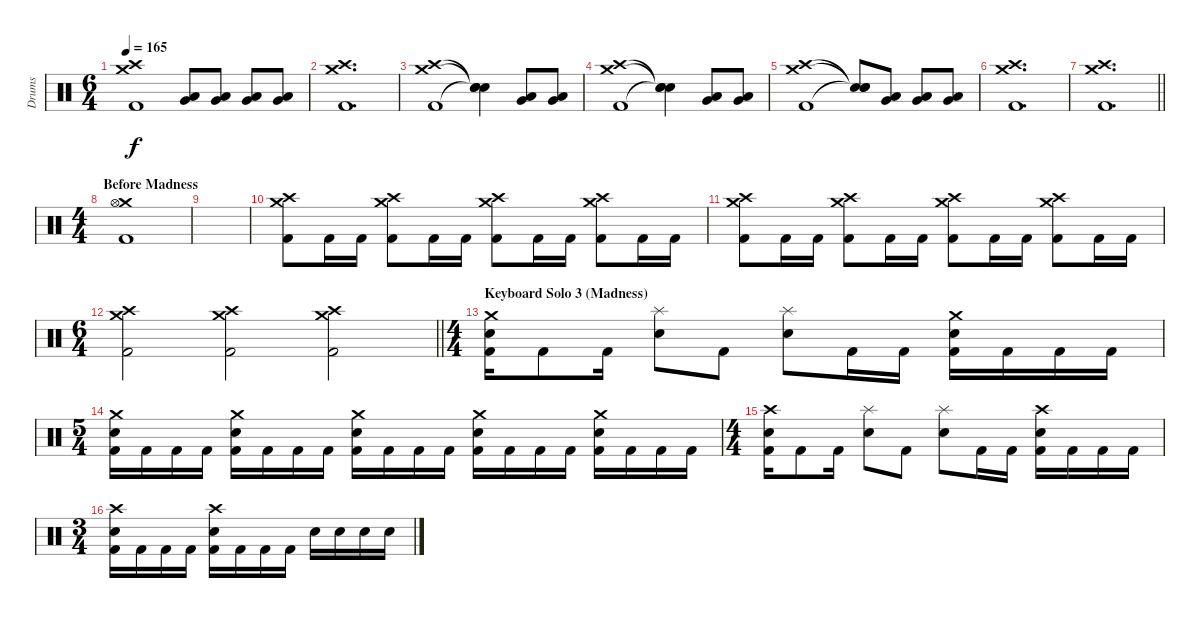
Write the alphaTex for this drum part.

\track ("Drums" "Drums") {instrument percussion}
\staff {score}
\articulation defaults
\ts (6 4)
\tempo 165
\clef neutral
\ks c
("Crash medium (hit)" "Crash high (hit)" "Kick (hit) 2").1{dy f} ("Low Tom (hit)" "Very Low Tom (hit)").8 ("Low Tom (hit)" "Very Low Tom (hit)").8 ("Low Tom (hit)" "Very Low Tom (hit)").8 ("Low Tom (hit)" "Very Low Tom (hit)").8 |
("Crash medium (hit)" "Crash high (hit)" "Kick (hit) 2").1{d} |
("Crash medium (hit)" "Crash high (hit)" "Kick (hit) 2").1 ("Snare (hit)"{t} "Snare (hit)"{t} "Snare (hit)"{t}).4 ("Low Tom (hit)" "Very Low Tom (hit)").8 ("Low Tom (hit)" "Very Low Tom (hit)").8 |
("Crash medium (hit)" "Crash high (hit)" "Kick (hit) 2").1 ("Snare (hit)"{t} "Snare (hit)"{t} "Snare (hit)"{t}).4 ("Low Tom (hit)" "Very Low Tom (hit)").8 ("Low Tom (hit)" "Very Low Tom (hit)").8 |
("Crash medium (hit)" "Crash high (hit)" "Kick (hit) 2").1 ("Snare (hit)"{t} "Snare (hit)"{t} "Snare (hit)"{t}).8 ("Low Tom (hit)" "Very Low Tom (hit)").8 ("Low Tom (hit)" "Very Low Tom (hit)").8 ("Low Tom (hit)" "Very Low Tom (hit)").8 |
("Crash medium (hit)" "Crash high (hit)" "Kick (hit) 2").1{d} |
\barLineRight lightlight
("Crash medium (hit)" "Crash high (hit)" "Kick (hit) 2").1{d} |
\ts (4 4)
\section ("" "Before Madness")
("Crash medium (hit)" "Hi-Hat (open)" "Kick (hit) 2").1 |
|
("Crash medium (hit)" "Crash high (hit)" "Kick (hit) 2").8 "Kick (hit) 2".16 "Kick (hit) 2".16 ("Crash medium (hit)" "Crash high (hit)" "Kick (hit) 2").8 "Kick (hit) 2".16 "Kick (hit) 2".16 ("Crash medium (hit)" "Crash high (hit)" "Kick (hit) 2").8 "Kick (hit) 2".16 "Kick (hit) 2".16 ("Crash medium (hit)" "Crash high (hit)" "Kick (hit) 2").8 "Kick (hit) 2".16 "Kick (hit) 2".16 |
("Crash medium (hit)" "Crash high (hit)" "Kick (hit) 2").8 "Kick (hit) 2".16 "Kick (hit) 2".16 ("Crash medium (hit)" "Crash high (hit)" "Kick (hit) 2").8 "Kick (hit) 2".16 "Kick (hit) 2".16 ("Crash medium (hit)" "Crash high (hit)" "Kick (hit) 2").8 "Kick (hit) 2".16 "Kick (hit) 2".16 ("Crash medium (hit)" "Crash high (hit)" "Kick (hit) 2").8 "Kick (hit) 2".16 "Kick (hit) 2".16 |
\ts (6 4)
\barLineRight lightlight
("Crash medium (hit)" "Crash high (hit)" "Kick (hit) 2").2 ("Crash medium (hit)" "Crash high (hit)" "Kick (hit) 2").2 ("Crash medium (hit)" "Crash high (hit)" "Kick (hit) 2").2 |
\ts (4 4)
\section ("" "Keyboard Solo 3 (Madness)")
("Crash medium (hit)" "Snare (hit) 2" "Kick (hit) 2").16 "Kick (hit) 2".8 "Kick (hit) 2".16 ("Splash (hit)" "Snare (hit) 2").8 "Kick (hit) 2".8 ("Splash (hit)" "Snare (hit) 2").8 "Kick (hit) 2".16 "Kick (hit) 2".16 ("Crash medium (hit)" "Snare (hit) 2" "Kick (hit) 2").16 "Kick (hit) 2".16 "Kick (hit) 2".16 "Kick (hit) 2".16 |
\ts (5 4)
("Crash medium (hit)" "Snare (hit) 2" "Kick (hit) 2").16 "Kick (hit) 2".16 "Kick (hit) 2".16 "Kick (hit) 2".16 ("Crash medium (hit)" "Snare (hit) 2" "Kick (hit) 2").16 "Kick (hit) 2".16 "Kick (hit) 2".16 "Kick (hit) 2".16 ("Crash medium (hit)" "Snare (hit) 2" "Kick (hit) 2").16 "Kick (hit) 2".16 "Kick (hit) 2".16 "Kick (hit) 2".16 ("Crash medium (hit)" "Snare (hit) 2" "Kick (hit) 2").16 "Kick (hit) 2".16 "Kick (hit) 2".16 "Kick (hit) 2".16 ("Crash medium (hit)" "Snare (hit) 2" "Kick (hit) 2").16 "Kick (hit) 2".16 "Kick (hit) 2".16 "Kick (hit) 2".16 |
\ts (4 4)
("Crash high (hit)" "Snare (hit) 2" "Kick (hit) 2").16 "Kick (hit) 2".8 "Kick (hit) 2".16 ("Splash (hit)" "Snare (hit) 2").8 "Kick (hit) 2".8 ("Splash (hit)" "Snare (hit) 2").8 "Kick (hit) 2".16 "Kick (hit) 2".16 ("Crash high (hit)" "Snare (hit) 2" "Kick (hit) 2").16 "Kick (hit) 2".16 "Kick (hit) 2".16 "Kick (hit) 2".16 |
\ts (3 4)
("Crash high (hit)" "Snare (hit) 2" "Kick (hit) 2").16 "Kick (hit) 2".16 "Kick (hit) 2".16 "Kick (hit) 2".16 ("Crash high (hit)" "Snare (hit) 2" "Kick (hit) 2").16 "Kick (hit) 2".16 "Kick (hit) 2".16 "Kick (hit) 2".16 "Snare (hit) 2".16 "Snare (hit) 2".16 "Snare (hit) 2".16 "Snare (hit) 2".16
